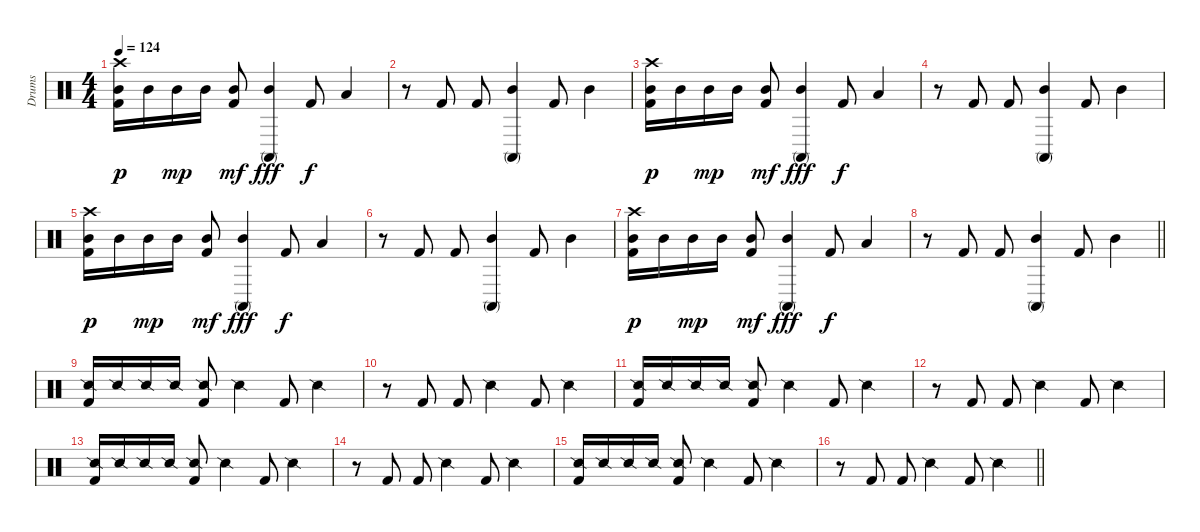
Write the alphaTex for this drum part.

\track ("Drums" "Drums") {instrument percussion}
\staff {score}
\articulation defaults
\ts (4 4)
\tempo 124
\clef neutral
\ks c
("Crash high (hit)" "Mid Tom (hit)" "Kick (hit) 2").16{dy p} "Mid Tom (hit)".16 "Mid Tom (hit)".16{dy mp} "Mid Tom (hit)".16 ("Mid Tom (hit)" "Kick (hit) 2").8{dy mf} ("Mid Tom (hit)" "Conga high (mute)").4{dy fff} "Kick (hit) 2".8{dy f} "Low Tom (hit)".4 |
r.8 "Kick (hit) 2".8 "Kick (hit) 2".8 ("Mid Tom (hit)" "Conga high (mute)").4 "Kick (hit) 2".8 "Mid Tom (hit)".4 |
("Crash high (hit)" "Mid Tom (hit)" "Kick (hit) 2").16{dy p} "Mid Tom (hit)".16 "Mid Tom (hit)".16{dy mp} "Mid Tom (hit)".16 ("Mid Tom (hit)" "Kick (hit) 2").8{dy mf} ("Mid Tom (hit)" "Conga high (mute)").4{dy fff} "Kick (hit) 2".8{dy f} "Low Tom (hit)".4 |
r.8 "Kick (hit) 2".8 "Kick (hit) 2".8 ("Mid Tom (hit)" "Conga high (mute)").4 "Kick (hit) 2".8 "Mid Tom (hit)".4 |
("Crash high (hit)" "Mid Tom (hit)" "Kick (hit) 2").16{dy p} "Mid Tom (hit)".16 "Mid Tom (hit)".16{dy mp} "Mid Tom (hit)".16 ("Mid Tom (hit)" "Kick (hit) 2").8{dy mf} ("Mid Tom (hit)" "Conga high (mute)").4{dy fff} "Kick (hit) 2".8{dy f} "Low Tom (hit)".4 |
r.8 "Kick (hit) 2".8 "Kick (hit) 2".8 ("Mid Tom (hit)" "Conga high (mute)").4 "Kick (hit) 2".8 "Mid Tom (hit)".4 |
("Crash high (hit)" "Mid Tom (hit)" "Kick (hit) 2").16{dy p} "Mid Tom (hit)".16 "Mid Tom (hit)".16{dy mp} "Mid Tom (hit)".16 ("Mid Tom (hit)" "Kick (hit) 2").8{dy mf} ("Mid Tom (hit)" "Conga high (mute)").4{dy fff} "Kick (hit) 2".8{dy f} "Low Tom (hit)".4 |
\barLineRight lightlight
r.8 "Kick (hit) 2".8 "Kick (hit) 2".8 ("Mid Tom (hit)" "Conga high (mute)").4 "Kick (hit) 2".8 "Mid Tom (hit)".4 |
("Snare (side stick) 2" "Kick (hit) 2").16 "Snare (side stick) 2".16 "Snare (side stick) 2".16 "Snare (side stick) 2".16 ("Snare (side stick) 2" "Kick (hit) 2").8 "Snare (side stick) 2".4 "Kick (hit) 2".8 "Snare (side stick) 2".4 |
r.8 "Kick (hit) 2".8 "Kick (hit) 2".8 "Snare (side stick) 2".4 "Kick (hit) 2".8 "Snare (side stick) 2".4 |
("Snare (side stick) 2" "Kick (hit) 2").16 "Snare (side stick) 2".16 "Snare (side stick) 2".16 "Snare (side stick) 2".16 ("Snare (side stick) 2" "Kick (hit) 2").8 "Snare (side stick) 2".4 "Kick (hit) 2".8 "Snare (side stick) 2".4 |
r.8 "Kick (hit) 2".8 "Kick (hit) 2".8 "Snare (side stick) 2".4 "Kick (hit) 2".8 "Snare (side stick) 2".4 |
("Snare (side stick) 2" "Kick (hit) 2").16 "Snare (side stick) 2".16 "Snare (side stick) 2".16 "Snare (side stick) 2".16 ("Snare (side stick) 2" "Kick (hit) 2").8 "Snare (side stick) 2".4 "Kick (hit) 2".8 "Snare (side stick) 2".4 |
r.8 "Kick (hit) 2".8 "Kick (hit) 2".8 "Snare (side stick) 2".4 "Kick (hit) 2".8 "Snare (side stick) 2".4 |
("Snare (side stick) 2" "Kick (hit) 2").16 "Snare (side stick) 2".16 "Snare (side stick) 2".16 "Snare (side stick) 2".16 ("Snare (side stick) 2" "Kick (hit) 2").8 "Snare (side stick) 2".4 "Kick (hit) 2".8 "Snare (side stick) 2".4 |
\barLineRight lightlight
r.8 "Kick (hit) 2".8 "Kick (hit) 2".8 "Snare (side stick) 2".4 "Kick (hit) 2".8 "Snare (side stick) 2".4
